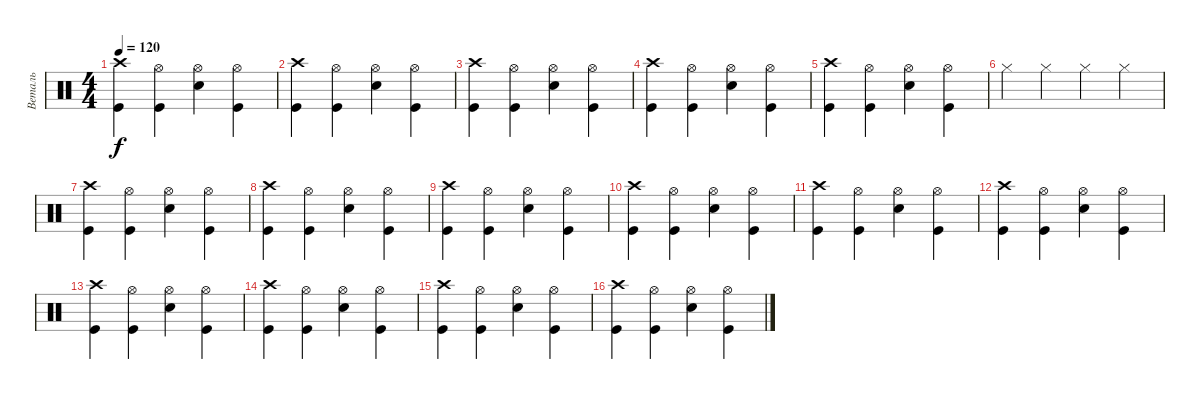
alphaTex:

\track ("Веталь" "Веталь") {instrument percussion}
\staff {score}
\articulation defaults
\ts (4 4)
\tempo 120
\clef neutral
\ks c
("Crash high (hit)" "Kick (hit)").4{dy f} ("Hi-Hat (open)" "Kick (hit)").4 ("Hi-Hat (open)" "Snare (hit) 2").4 ("Hi-Hat (open)" "Kick (hit)").4 |
("Crash high (hit)" "Kick (hit)").4 ("Hi-Hat (open)" "Kick (hit)").4 ("Hi-Hat (open)" "Snare (hit) 2").4 ("Hi-Hat (open)" "Kick (hit)").4 |
("Crash high (hit)" "Kick (hit)").4 ("Hi-Hat (open)" "Kick (hit)").4 ("Hi-Hat (open)" "Snare (hit) 2").4 ("Hi-Hat (open)" "Kick (hit)").4 |
("Crash high (hit)" "Kick (hit)").4 ("Hi-Hat (open)" "Kick (hit)").4 ("Hi-Hat (open)" "Snare (hit) 2").4 ("Hi-Hat (open)" "Kick (hit)").4 |
("Crash high (hit)" "Kick (hit)").4 ("Hi-Hat (open)" "Kick (hit)").4 ("Hi-Hat (open)" "Snare (hit) 2").4 ("Hi-Hat (open)" "Kick (hit)").4 |
"Hi-Hat (closed)".4 "Hi-Hat (closed)".4 "Hi-Hat (closed)".4 "Hi-Hat (closed)".4 |
("Crash high (hit)" "Kick (hit)").4 ("Hi-Hat (open)" "Kick (hit)").4 ("Hi-Hat (open)" "Snare (hit) 2").4 ("Hi-Hat (open)" "Kick (hit)").4 |
("Crash high (hit)" "Kick (hit)").4 ("Hi-Hat (open)" "Kick (hit)").4 ("Hi-Hat (open)" "Snare (hit) 2").4 ("Hi-Hat (open)" "Kick (hit)").4 |
("Crash high (hit)" "Kick (hit)").4 ("Hi-Hat (open)" "Kick (hit)").4 ("Hi-Hat (open)" "Snare (hit) 2").4 ("Hi-Hat (open)" "Kick (hit)").4 |
("Crash high (hit)" "Kick (hit)").4 ("Hi-Hat (open)" "Kick (hit)").4 ("Hi-Hat (open)" "Snare (hit) 2").4 ("Hi-Hat (open)" "Kick (hit)").4 |
("Crash high (hit)" "Kick (hit)").4 ("Hi-Hat (open)" "Kick (hit)").4 ("Hi-Hat (open)" "Snare (hit) 2").4 ("Hi-Hat (open)" "Kick (hit)").4 |
("Crash high (hit)" "Kick (hit)").4 ("Hi-Hat (open)" "Kick (hit)").4 ("Hi-Hat (open)" "Snare (hit) 2").4 ("Hi-Hat (open)" "Kick (hit)").4 |
("Crash high (hit)" "Kick (hit)").4 ("Hi-Hat (open)" "Kick (hit)").4 ("Hi-Hat (open)" "Snare (hit) 2").4 ("Hi-Hat (open)" "Kick (hit)").4 |
("Crash high (hit)" "Kick (hit)").4 ("Hi-Hat (open)" "Kick (hit)").4 ("Hi-Hat (open)" "Snare (hit) 2").4 ("Hi-Hat (open)" "Kick (hit)").4 |
("Crash high (hit)" "Kick (hit)").4 ("Hi-Hat (open)" "Kick (hit)").4 ("Hi-Hat (open)" "Snare (hit) 2").4 ("Hi-Hat (open)" "Kick (hit)").4 |
("Crash high (hit)" "Kick (hit)").4 ("Hi-Hat (open)" "Kick (hit)").4 ("Hi-Hat (open)" "Snare (hit) 2").4 ("Hi-Hat (open)" "Kick (hit)").4
